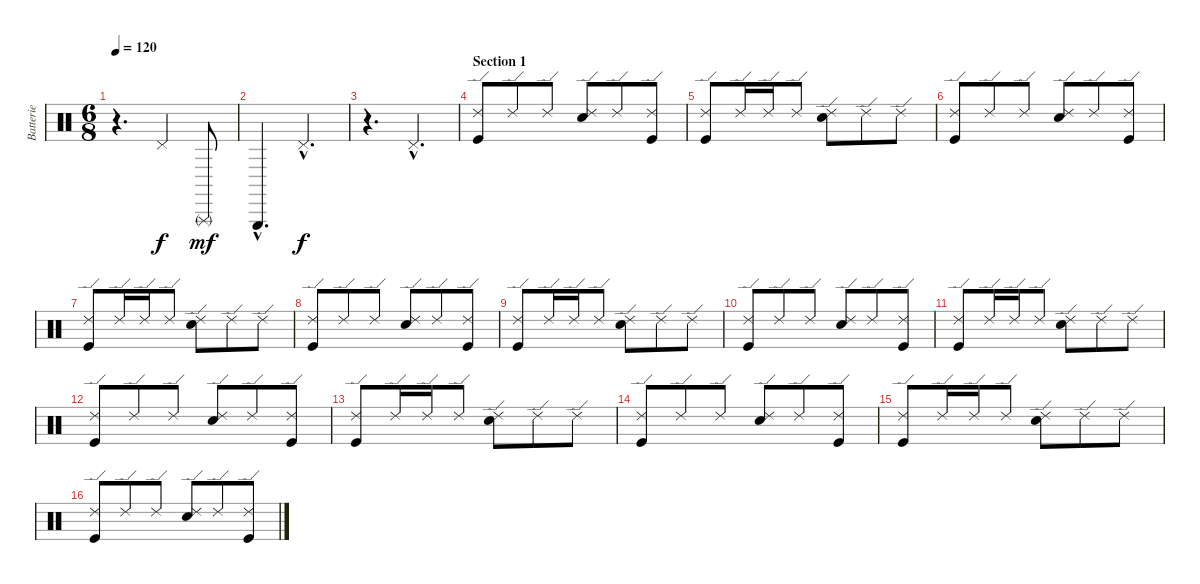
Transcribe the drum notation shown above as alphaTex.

\track ("Batterie" "Batterie") {instrument percussion}
\staff {score}
\articulation defaults
\ts (6 8)
\tempo 120
\clef neutral
\ks c
r.4{d dy f} "Pedal Hi-Hat (hit)".4 "Triangle (rnute)".8{dy mf} |
"Triangle (hit)"{hac}.4{d} "Pedal Hi-Hat (hit)"{hac}.4{d dy f} |
r.4{d} "Pedal Hi-Hat (hit)"{hac}.4{d} |
\section ("" "Section 1")
("Ride (edge) 2" "Kick (hit)").8{volume 14} "Ride (edge) 2".8 "Ride (edge) 2".8 ("Ride (edge) 2" "Snare (hit) 2").8 "Ride (edge) 2".8 ("Ride (edge) 2" "Kick (hit)").8 |
("Ride (edge) 2" "Kick (hit)").8 "Ride (edge) 2".16 "Ride (edge) 2".16 "Ride (edge) 2".8 ("Ride (edge) 2" "Snare (hit) 2").8 "Ride (edge) 2".8 "Ride (edge) 2".8 |
("Ride (edge) 2" "Kick (hit)").8 "Ride (edge) 2".8 "Ride (edge) 2".8 ("Ride (edge) 2" "Snare (hit) 2").8 "Ride (edge) 2".8 ("Ride (edge) 2" "Kick (hit)").8 |
("Ride (edge) 2" "Kick (hit)").8 "Ride (edge) 2".16 "Ride (edge) 2".16 "Ride (edge) 2".8 ("Ride (edge) 2" "Snare (hit) 2").8 "Ride (edge) 2".8 "Ride (edge) 2".8 |
("Ride (edge) 2" "Kick (hit)").8 "Ride (edge) 2".8 "Ride (edge) 2".8 ("Ride (edge) 2" "Snare (hit) 2").8 "Ride (edge) 2".8 ("Ride (edge) 2" "Kick (hit)").8 |
("Ride (edge) 2" "Kick (hit)").8 "Ride (edge) 2".16 "Ride (edge) 2".16 "Ride (edge) 2".8 ("Ride (edge) 2" "Snare (hit) 2").8 "Ride (edge) 2".8 "Ride (edge) 2".8 |
("Ride (edge) 2" "Kick (hit)").8 "Ride (edge) 2".8 "Ride (edge) 2".8 ("Ride (edge) 2" "Snare (hit) 2").8 "Ride (edge) 2".8 ("Ride (edge) 2" "Kick (hit)").8 |
("Ride (edge) 2" "Kick (hit)").8 "Ride (edge) 2".16 "Ride (edge) 2".16 "Ride (edge) 2".8 ("Ride (edge) 2" "Snare (hit) 2").8 "Ride (edge) 2".8 "Ride (edge) 2".8 |
("Ride (edge) 2" "Kick (hit)").8 "Ride (edge) 2".8 "Ride (edge) 2".8 ("Ride (edge) 2" "Snare (hit) 2").8 "Ride (edge) 2".8 ("Ride (edge) 2" "Kick (hit)").8 |
("Ride (edge) 2" "Kick (hit)").8 "Ride (edge) 2".16 "Ride (edge) 2".16 "Ride (edge) 2".8 ("Ride (edge) 2" "Snare (hit) 2").8 "Ride (edge) 2".8 "Ride (edge) 2".8 |
("Ride (edge) 2" "Kick (hit)").8 "Ride (edge) 2".8 "Ride (edge) 2".8 ("Ride (edge) 2" "Snare (hit) 2").8 "Ride (edge) 2".8 ("Ride (edge) 2" "Kick (hit)").8 |
("Ride (edge) 2" "Kick (hit)").8 "Ride (edge) 2".16 "Ride (edge) 2".16 "Ride (edge) 2".8 ("Ride (edge) 2" "Snare (hit) 2").8 "Ride (edge) 2".8 "Ride (edge) 2".8 |
("Ride (edge) 2" "Kick (hit)").8 "Ride (edge) 2".8 "Ride (edge) 2".8 ("Ride (edge) 2" "Snare (hit) 2").8 "Ride (edge) 2".8 ("Ride (edge) 2" "Kick (hit)").8
